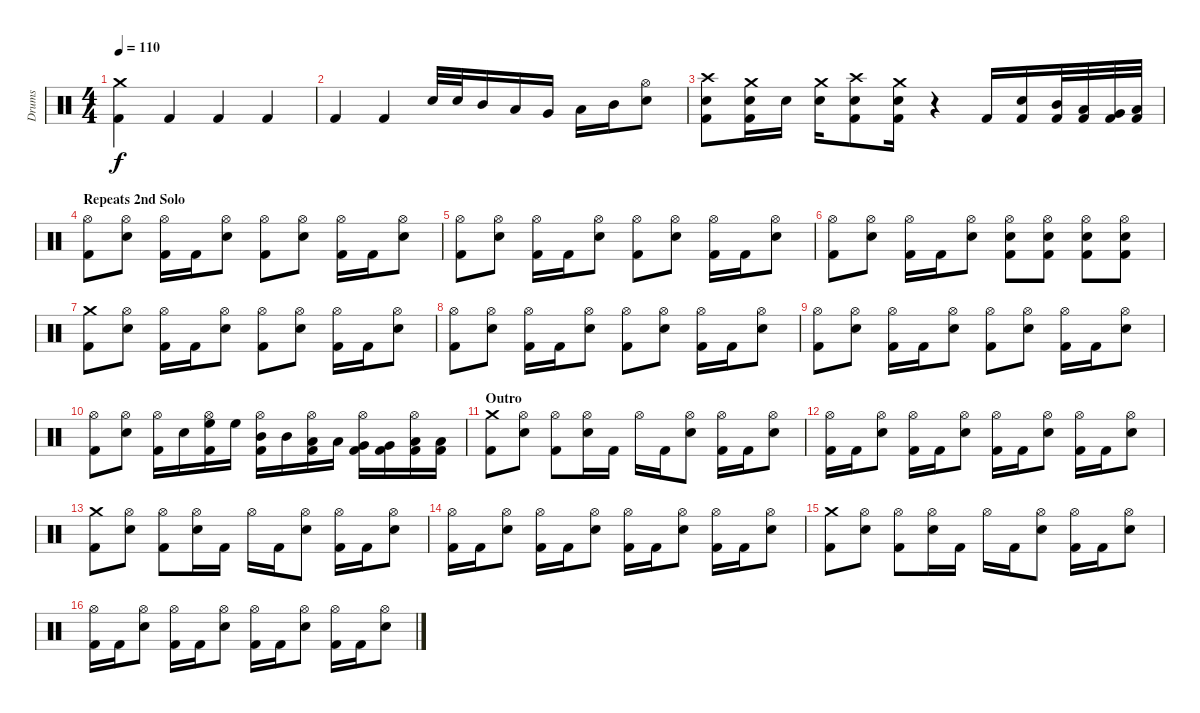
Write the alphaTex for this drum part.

\track ("Drums" "Drums") {instrument percussion}
\staff {score}
\articulation defaults
\ts (4 4)
\tempo 110
\clef neutral
\ks c
("Crash medium (hit)" "Kick (hit) 2").4{dy f} "Kick (hit) 2".4 "Kick (hit) 2".4 "Kick (hit) 2".4 |
"Kick (hit) 2".4 "Kick (hit) 2".4 "Electric Snare (hit)".32 "Electric Snare (hit)".32 "Mid Tom (hit)".16 "Low Tom (hit)".16 "Very Low Tom (hit)".16 "Low Tom (hit)".16 "Mid Tom (hit)".16 ("Hi-Hat (open)" "Electric Snare (hit)").8 |
("Crash high (hit)" "Electric Snare (hit)" "Kick (hit) 2").8 ("Crash medium (hit)" "Electric Snare (hit)" "Kick (hit) 2").16 "Electric Snare (hit)".16 ("Crash medium (hit)" "Electric Snare (hit)").16 ("Crash high (hit)" "Electric Snare (hit)" "Kick (hit) 2").8 ("Crash medium (hit)" "Electric Snare (hit)" "Kick (hit) 2").16 r.4 "Kick (hit) 2".16 ("Electric Snare (hit)" "Kick (hit) 2").16 ("Mid Tom (hit)" "Kick (hit) 2").32 ("Low Tom (hit)" "Kick (hit) 2").32 ("Very Low Tom (hit)" "Kick (hit) 2").32 ("Low Floor Tom (hit)" "Kick (hit) 2").32 |
\section ("" "Repeats 2nd Solo")
("Hi-Hat (open)" "Kick (hit) 2").8 ("Hi-Hat (open)" "Electric Snare (hit)").8 ("Hi-Hat (open)" "Kick (hit) 2").16 "Kick (hit) 2".16 ("Hi-Hat (open)" "Electric Snare (hit)").8 ("Hi-Hat (open)" "Kick (hit) 2").8 ("Hi-Hat (open)" "Electric Snare (hit)").8 ("Hi-Hat (open)" "Kick (hit) 2").16 "Kick (hit) 2".16 ("Hi-Hat (open)" "Electric Snare (hit)").8 |
("Hi-Hat (open)" "Kick (hit) 2").8 ("Hi-Hat (open)" "Electric Snare (hit)").8 ("Hi-Hat (open)" "Kick (hit) 2").16 "Kick (hit) 2".16 ("Hi-Hat (open)" "Electric Snare (hit)").8 ("Hi-Hat (open)" "Kick (hit) 2").8 ("Hi-Hat (open)" "Electric Snare (hit)").8 ("Hi-Hat (open)" "Kick (hit) 2").16 "Kick (hit) 2".16 ("Hi-Hat (open)" "Electric Snare (hit)").8 |
("Hi-Hat (open)" "Kick (hit) 2").8 ("Hi-Hat (open)" "Electric Snare (hit)").8 ("Hi-Hat (open)" "Kick (hit) 2").16 "Kick (hit) 2".16 ("Hi-Hat (open)" "Electric Snare (hit)").8 ("Hi-Hat (open)" "Electric Snare (hit)" "Kick (hit) 2").8 ("Hi-Hat (open)" "Electric Snare (hit)" "Kick (hit) 2").8 ("Hi-Hat (open)" "Electric Snare (hit)" "Kick (hit) 2").8 ("Hi-Hat (open)" "Electric Snare (hit)" "Kick (hit) 2").8 |
("Crash medium (hit)" "Kick (hit) 2").8 ("Hi-Hat (open)" "Electric Snare (hit)").8 ("Hi-Hat (open)" "Kick (hit) 2").16 "Kick (hit) 2".16 ("Hi-Hat (open)" "Electric Snare (hit)").8 ("Hi-Hat (open)" "Kick (hit) 2").8 ("Hi-Hat (open)" "Electric Snare (hit)").8 ("Hi-Hat (open)" "Kick (hit) 2").16 "Kick (hit) 2".16 ("Hi-Hat (open)" "Electric Snare (hit)").8 |
("Hi-Hat (open)" "Kick (hit) 2").8 ("Hi-Hat (open)" "Electric Snare (hit)").8 ("Hi-Hat (open)" "Kick (hit) 2").16 "Kick (hit) 2".16 ("Hi-Hat (open)" "Electric Snare (hit)").8 ("Hi-Hat (open)" "Kick (hit) 2").8 ("Hi-Hat (open)" "Electric Snare (hit)").8 ("Hi-Hat (open)" "Kick (hit) 2").16 "Kick (hit) 2".16 ("Hi-Hat (open)" "Electric Snare (hit)").8 |
("Hi-Hat (open)" "Kick (hit) 2").8 ("Hi-Hat (open)" "Electric Snare (hit)").8 ("Hi-Hat (open)" "Kick (hit) 2").16 "Kick (hit) 2".16 ("Hi-Hat (open)" "Electric Snare (hit)").8 ("Hi-Hat (open)" "Kick (hit) 2").8 ("Hi-Hat (open)" "Electric Snare (hit)").8 ("Hi-Hat (open)" "Kick (hit) 2").16 "Kick (hit) 2".16 ("Hi-Hat (open)" "Electric Snare (hit)").8 |
("Hi-Hat (open)" "Kick (hit) 2").8 ("Hi-Hat (open)" "Electric Snare (hit)").8 ("Hi-Hat (open)" "Kick (hit) 2").16 "Electric Snare (hit)".16 ("Hi-Hat (open)" "High Floor Tom (hit)" "Kick (hit) 2").16 "High Floor Tom (hit)".16 ("Hi-Hat (open)" "Mid Tom (hit)" "Kick (hit) 2").16 "Mid Tom (hit)".16 ("Hi-Hat (open)" "Low Tom (hit)" "Kick (hit) 2").16 "Low Tom (hit)".16 ("Hi-Hat (open)" "Very Low Tom (hit)" "Kick (hit) 2").16 ("Very Low Tom (hit)" "Kick (hit) 2").16 ("Hi-Hat (open)" "Low Floor Tom (hit)" "Kick (hit) 2").16 ("Low Floor Tom (hit)" "Kick (hit) 2").16 |
\section ("" "Outro")
("Crash medium (hit)" "Kick (hit) 2").8 ("Hi-Hat (open)" "Electric Snare (hit)").8 ("Hi-Hat (open)" "Kick (hit) 2").8 ("Hi-Hat (open)" "Electric Snare (hit)").16 "Kick (hit) 2".16 "Hi-Hat (open)".16 "Kick (hit) 2".16 ("Hi-Hat (open)" "Electric Snare (hit)").8 ("Hi-Hat (open)" "Kick (hit) 2").16 "Kick (hit) 2".16 ("Hi-Hat (open)" "Electric Snare (hit)").8 |
("Hi-Hat (open)" "Kick (hit) 2").16 "Kick (hit) 2".16 ("Hi-Hat (open)" "Electric Snare (hit)").8 ("Hi-Hat (open)" "Kick (hit) 2").16 "Kick (hit) 2".16 ("Hi-Hat (open)" "Electric Snare (hit)").8 ("Hi-Hat (open)" "Kick (hit) 2").16 "Kick (hit) 2".16 ("Hi-Hat (open)" "Electric Snare (hit)").8 ("Hi-Hat (open)" "Kick (hit) 2").16 "Kick (hit) 2".16 ("Hi-Hat (open)" "Electric Snare (hit)").8 |
("Crash medium (hit)" "Kick (hit) 2").8 ("Hi-Hat (open)" "Electric Snare (hit)").8 ("Hi-Hat (open)" "Kick (hit) 2").8 ("Hi-Hat (open)" "Electric Snare (hit)").16 "Kick (hit) 2".16 "Hi-Hat (open)".16 "Kick (hit) 2".16 ("Hi-Hat (open)" "Electric Snare (hit)").8 ("Hi-Hat (open)" "Kick (hit) 2").16 "Kick (hit) 2".16 ("Hi-Hat (open)" "Electric Snare (hit)").8 |
("Hi-Hat (open)" "Kick (hit) 2").16 "Kick (hit) 2".16 ("Hi-Hat (open)" "Electric Snare (hit)").8 ("Hi-Hat (open)" "Kick (hit) 2").16 "Kick (hit) 2".16 ("Hi-Hat (open)" "Electric Snare (hit)").8 ("Hi-Hat (open)" "Kick (hit) 2").16 "Kick (hit) 2".16 ("Hi-Hat (open)" "Electric Snare (hit)").8 ("Hi-Hat (open)" "Kick (hit) 2").16 "Kick (hit) 2".16 ("Hi-Hat (open)" "Electric Snare (hit)").8 |
("Crash medium (hit)" "Kick (hit) 2").8 ("Hi-Hat (open)" "Electric Snare (hit)").8 ("Hi-Hat (open)" "Kick (hit) 2").8 ("Hi-Hat (open)" "Electric Snare (hit)").16 "Kick (hit) 2".16 "Hi-Hat (open)".16 "Kick (hit) 2".16 ("Hi-Hat (open)" "Electric Snare (hit)").8 ("Hi-Hat (open)" "Kick (hit) 2").16 "Kick (hit) 2".16 ("Hi-Hat (open)" "Electric Snare (hit)").8 |
("Hi-Hat (open)" "Kick (hit) 2").16 "Kick (hit) 2".16 ("Hi-Hat (open)" "Electric Snare (hit)").8 ("Hi-Hat (open)" "Kick (hit) 2").16 "Kick (hit) 2".16 ("Hi-Hat (open)" "Electric Snare (hit)").8 ("Hi-Hat (open)" "Kick (hit) 2").16 "Kick (hit) 2".16 ("Hi-Hat (open)" "Electric Snare (hit)").8 ("Hi-Hat (open)" "Kick (hit) 2").16 "Kick (hit) 2".16 ("Hi-Hat (open)" "Electric Snare (hit)").8
